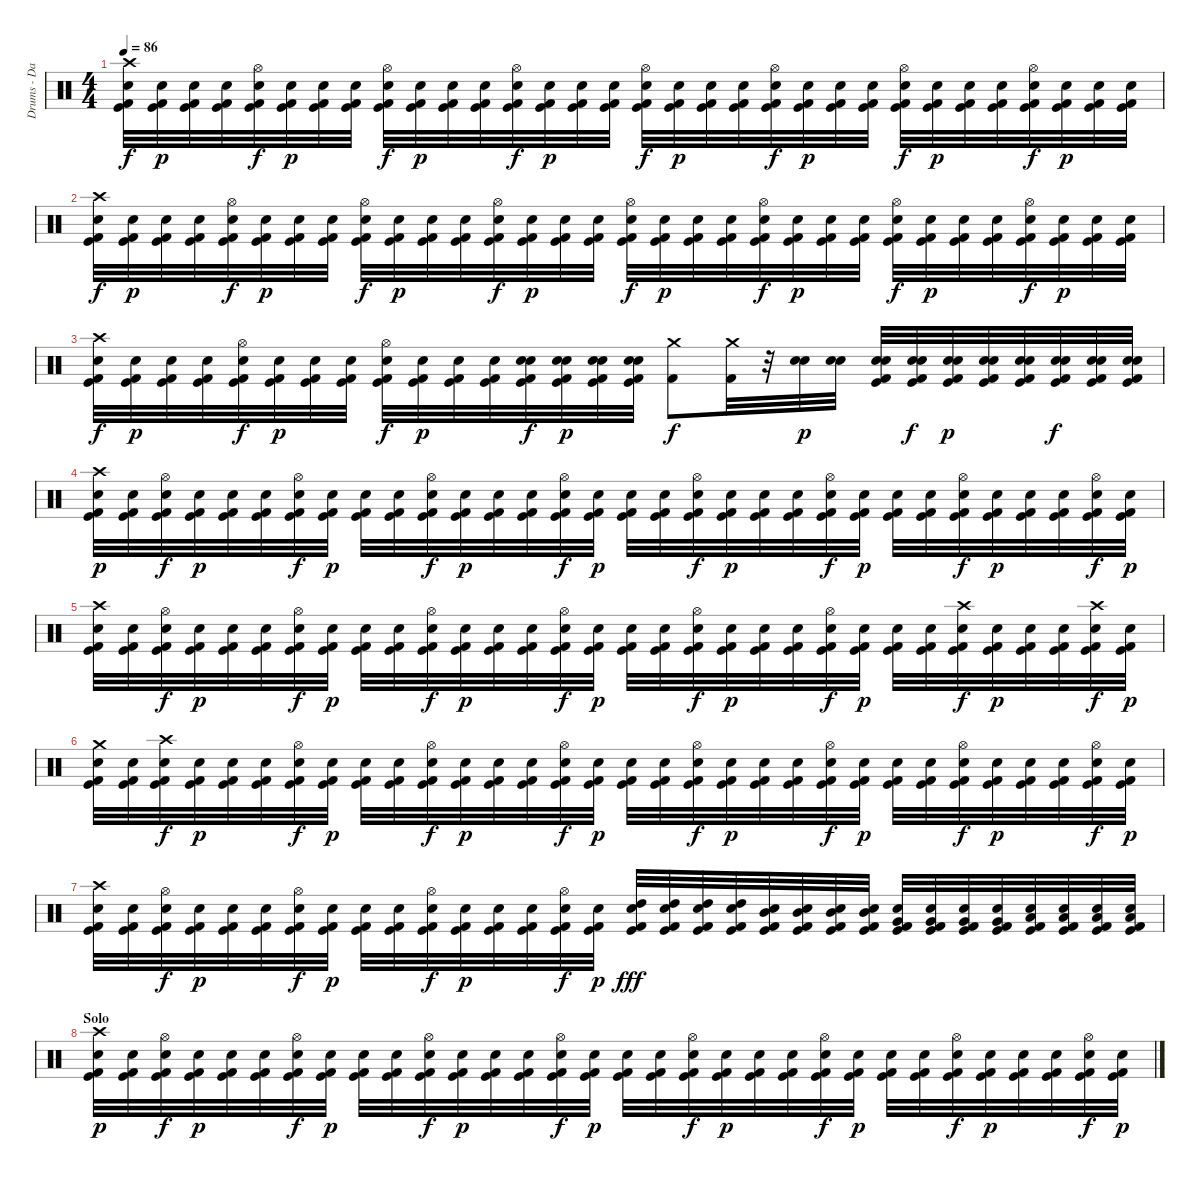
\track ("Drums - Daniel Zimmermann" "Drums - Da") {instrument percussion}
\staff {score}
\articulation defaults
\ts (4 4)
\tempo 86
\clef neutral
\ks c
("Kick (hit)" "Kick (hit) 2" "Electric Snare (hit)" "Crash high (hit)").32{dy f} ("Kick (hit)" "Kick (hit) 2" "Electric Snare (hit)").32{dy p} ("Kick (hit)" "Kick (hit) 2" "Electric Snare (hit)").32 ("Kick (hit)" "Kick (hit) 2" "Electric Snare (hit)").32 ("Kick (hit)" "Kick (hit) 2" "Electric Snare (hit)" "Hi-Hat (open)").32{dy f} ("Kick (hit)" "Kick (hit) 2" "Electric Snare (hit)").32{dy p} ("Kick (hit)" "Kick (hit) 2" "Electric Snare (hit)").32 ("Kick (hit)" "Kick (hit) 2" "Electric Snare (hit)").32 ("Kick (hit)" "Kick (hit) 2" "Electric Snare (hit)" "Hi-Hat (open)").32{dy f} ("Kick (hit)" "Kick (hit) 2" "Electric Snare (hit)").32{dy p} ("Kick (hit)" "Kick (hit) 2" "Electric Snare (hit)").32 ("Kick (hit)" "Kick (hit) 2" "Electric Snare (hit)").32 ("Kick (hit)" "Kick (hit) 2" "Electric Snare (hit)" "Hi-Hat (open)").32{dy f} ("Kick (hit)" "Kick (hit) 2" "Electric Snare (hit)").32{dy p} ("Kick (hit)" "Kick (hit) 2" "Electric Snare (hit)").32 ("Kick (hit)" "Kick (hit) 2" "Electric Snare (hit)").32 ("Kick (hit)" "Kick (hit) 2" "Electric Snare (hit)" "Hi-Hat (open)").32{dy f} ("Kick (hit)" "Kick (hit) 2" "Electric Snare (hit)").32{dy p} ("Kick (hit)" "Kick (hit) 2" "Electric Snare (hit)").32 ("Kick (hit)" "Kick (hit) 2" "Electric Snare (hit)").32 ("Kick (hit)" "Kick (hit) 2" "Electric Snare (hit)" "Hi-Hat (open)").32{dy f} ("Kick (hit)" "Kick (hit) 2" "Electric Snare (hit)").32{dy p} ("Kick (hit)" "Kick (hit) 2" "Electric Snare (hit)").32 ("Kick (hit)" "Kick (hit) 2" "Electric Snare (hit)").32 ("Kick (hit)" "Kick (hit) 2" "Electric Snare (hit)" "Hi-Hat (open)").32{dy f} ("Kick (hit)" "Kick (hit) 2" "Electric Snare (hit)").32{dy p} ("Kick (hit)" "Kick (hit) 2" "Electric Snare (hit)").32 ("Kick (hit)" "Kick (hit) 2" "Electric Snare (hit)").32 ("Kick (hit)" "Kick (hit) 2" "Electric Snare (hit)" "Hi-Hat (open)").32{dy f} ("Kick (hit)" "Kick (hit) 2" "Electric Snare (hit)").32{dy p} ("Kick (hit)" "Kick (hit) 2" "Electric Snare (hit)").32 ("Kick (hit)" "Kick (hit) 2" "Electric Snare (hit)").32 |
("Kick (hit)" "Kick (hit) 2" "Electric Snare (hit)" "Crash high (hit)").32{dy f} ("Kick (hit)" "Kick (hit) 2" "Electric Snare (hit)").32{dy p} ("Kick (hit)" "Kick (hit) 2" "Electric Snare (hit)").32 ("Kick (hit)" "Kick (hit) 2" "Electric Snare (hit)").32 ("Kick (hit)" "Kick (hit) 2" "Electric Snare (hit)" "Hi-Hat (open)").32{dy f} ("Kick (hit)" "Kick (hit) 2" "Electric Snare (hit)").32{dy p} ("Kick (hit)" "Kick (hit) 2" "Electric Snare (hit)").32 ("Kick (hit)" "Kick (hit) 2" "Electric Snare (hit)").32 ("Kick (hit)" "Kick (hit) 2" "Electric Snare (hit)" "Hi-Hat (open)").32{dy f} ("Kick (hit)" "Kick (hit) 2" "Electric Snare (hit)").32{dy p} ("Kick (hit)" "Kick (hit) 2" "Electric Snare (hit)").32 ("Kick (hit)" "Kick (hit) 2" "Electric Snare (hit)").32 ("Kick (hit)" "Kick (hit) 2" "Electric Snare (hit)" "Hi-Hat (open)").32{dy f} ("Kick (hit)" "Kick (hit) 2" "Electric Snare (hit)").32{dy p} ("Kick (hit)" "Kick (hit) 2" "Electric Snare (hit)").32 ("Kick (hit)" "Kick (hit) 2" "Electric Snare (hit)").32 ("Kick (hit)" "Kick (hit) 2" "Electric Snare (hit)" "Hi-Hat (open)").32{dy f} ("Kick (hit)" "Kick (hit) 2" "Electric Snare (hit)").32{dy p} ("Kick (hit)" "Kick (hit) 2" "Electric Snare (hit)").32 ("Kick (hit)" "Kick (hit) 2" "Electric Snare (hit)").32 ("Kick (hit)" "Kick (hit) 2" "Electric Snare (hit)" "Hi-Hat (open)").32{dy f} ("Kick (hit)" "Kick (hit) 2" "Electric Snare (hit)").32{dy p} ("Kick (hit)" "Kick (hit) 2" "Electric Snare (hit)").32 ("Kick (hit)" "Kick (hit) 2" "Electric Snare (hit)").32 ("Kick (hit)" "Kick (hit) 2" "Electric Snare (hit)" "Hi-Hat (open)").32{dy f} ("Kick (hit)" "Kick (hit) 2" "Electric Snare (hit)").32{dy p} ("Kick (hit)" "Kick (hit) 2" "Electric Snare (hit)").32 ("Kick (hit)" "Kick (hit) 2" "Electric Snare (hit)").32 ("Kick (hit)" "Kick (hit) 2" "Electric Snare (hit)" "Hi-Hat (open)").32{dy f} ("Kick (hit)" "Kick (hit) 2" "Electric Snare (hit)").32{dy p} ("Kick (hit)" "Kick (hit) 2" "Electric Snare (hit)").32 ("Kick (hit)" "Kick (hit) 2" "Electric Snare (hit)").32 |
("Kick (hit)" "Kick (hit) 2" "Electric Snare (hit)" "Crash high (hit)").32{dy f} ("Kick (hit)" "Kick (hit) 2" "Electric Snare (hit)").32{dy p} ("Kick (hit)" "Kick (hit) 2" "Electric Snare (hit)").32 ("Kick (hit)" "Kick (hit) 2" "Electric Snare (hit)").32 ("Kick (hit)" "Kick (hit) 2" "Electric Snare (hit)" "Hi-Hat (open)").32{dy f} ("Kick (hit)" "Kick (hit) 2" "Electric Snare (hit)").32{dy p} ("Kick (hit)" "Kick (hit) 2" "Electric Snare (hit)").32 ("Kick (hit)" "Kick (hit) 2" "Electric Snare (hit)").32 ("Kick (hit)" "Kick (hit) 2" "Electric Snare (hit)" "Hi-Hat (open)").32{dy f} ("Kick (hit)" "Kick (hit) 2" "Electric Snare (hit)").32{dy p} ("Kick (hit)" "Kick (hit) 2" "Electric Snare (hit)").32 ("Kick (hit)" "Kick (hit) 2" "Electric Snare (hit)").32 ("Kick (hit)" "Kick (hit) 2" "Electric Snare (hit)" "Snare (hit) 2").32{dy f} ("Kick (hit)" "Kick (hit) 2" "Electric Snare (hit)" "Snare (hit) 2").32{dy p} ("Kick (hit)" "Kick (hit) 2" "Electric Snare (hit)" "Snare (hit) 2").32 ("Kick (hit)" "Kick (hit) 2" "Electric Snare (hit)" "Snare (hit) 2").32 ("Kick (hit) 2" "Crash medium (hit)").8{dy f} ("Kick (hit) 2" "Crash medium (hit)").32 r.32 ("Electric Snare (hit)" "Snare (hit) 2").32{dy p} ("Electric Snare (hit)" "Snare (hit) 2").32 ("Kick (hit)" "Kick (hit) 2" "Electric Snare (hit)" "Snare (hit) 2").32 ("Kick (hit)" "Kick (hit) 2" "Electric Snare (hit)" "Snare (hit) 2").32{dy f} ("Kick (hit)" "Kick (hit) 2" "Electric Snare (hit)" "Snare (hit) 2").32{dy p} ("Kick (hit)" "Kick (hit) 2" "Electric Snare (hit)" "Snare (hit) 2").32 ("Kick (hit)" "Kick (hit) 2" "Electric Snare (hit)" "Snare (hit) 2").32 ("Kick (hit)" "Kick (hit) 2" "Electric Snare (hit)" "Snare (hit) 2").32{dy f} ("Kick (hit)" "Kick (hit) 2" "Electric Snare (hit)" "Snare (hit) 2").32 ("Kick (hit)" "Kick (hit) 2" "Electric Snare (hit)" "Snare (hit) 2").32 |
("Kick (hit)" "Kick (hit) 2" "Electric Snare (hit)" "Crash high (hit)").32{dy p} ("Kick (hit)" "Kick (hit) 2" "Electric Snare (hit)").32 ("Kick (hit)" "Kick (hit) 2" "Electric Snare (hit)" "Hi-Hat (open)").32{dy f} ("Kick (hit)" "Kick (hit) 2" "Electric Snare (hit)").32{dy p} ("Kick (hit)" "Kick (hit) 2" "Electric Snare (hit)").32 ("Kick (hit)" "Kick (hit) 2" "Electric Snare (hit)").32 ("Kick (hit)" "Kick (hit) 2" "Electric Snare (hit)" "Hi-Hat (open)").32{dy f} ("Kick (hit)" "Kick (hit) 2" "Electric Snare (hit)").32{dy p} ("Kick (hit)" "Kick (hit) 2" "Electric Snare (hit)").32 ("Kick (hit)" "Kick (hit) 2" "Electric Snare (hit)").32 ("Kick (hit)" "Kick (hit) 2" "Electric Snare (hit)" "Hi-Hat (open)").32{dy f} ("Kick (hit)" "Kick (hit) 2" "Electric Snare (hit)").32{dy p} ("Kick (hit)" "Kick (hit) 2" "Electric Snare (hit)").32 ("Kick (hit)" "Kick (hit) 2" "Electric Snare (hit)").32 ("Kick (hit)" "Kick (hit) 2" "Electric Snare (hit)" "Hi-Hat (open)").32{dy f} ("Kick (hit)" "Kick (hit) 2" "Electric Snare (hit)").32{dy p} ("Kick (hit)" "Kick (hit) 2" "Electric Snare (hit)").32 ("Kick (hit)" "Kick (hit) 2" "Electric Snare (hit)").32 ("Kick (hit)" "Kick (hit) 2" "Electric Snare (hit)" "Hi-Hat (open)").32{dy f} ("Kick (hit)" "Kick (hit) 2" "Electric Snare (hit)").32{dy p} ("Kick (hit)" "Kick (hit) 2" "Electric Snare (hit)").32 ("Kick (hit)" "Kick (hit) 2" "Electric Snare (hit)").32 ("Kick (hit)" "Kick (hit) 2" "Electric Snare (hit)" "Hi-Hat (open)").32{dy f} ("Kick (hit)" "Kick (hit) 2" "Electric Snare (hit)").32{dy p} ("Kick (hit)" "Kick (hit) 2" "Electric Snare (hit)").32 ("Kick (hit)" "Kick (hit) 2" "Electric Snare (hit)").32 ("Kick (hit)" "Kick (hit) 2" "Electric Snare (hit)" "Hi-Hat (open)").32{dy f} ("Kick (hit)" "Kick (hit) 2" "Electric Snare (hit)").32{dy p} ("Kick (hit)" "Kick (hit) 2" "Electric Snare (hit)").32 ("Kick (hit)" "Kick (hit) 2" "Electric Snare (hit)").32 ("Kick (hit)" "Kick (hit) 2" "Electric Snare (hit)" "Hi-Hat (open)").32{dy f} ("Kick (hit)" "Kick (hit) 2" "Electric Snare (hit)").32{dy p} |
("Kick (hit)" "Kick (hit) 2" "Electric Snare (hit)" "Crash high (hit)").32 ("Kick (hit)" "Kick (hit) 2" "Electric Snare (hit)").32 ("Kick (hit)" "Kick (hit) 2" "Electric Snare (hit)" "Hi-Hat (open)").32{dy f} ("Kick (hit)" "Kick (hit) 2" "Electric Snare (hit)").32{dy p} ("Kick (hit)" "Kick (hit) 2" "Electric Snare (hit)").32 ("Kick (hit)" "Kick (hit) 2" "Electric Snare (hit)").32 ("Kick (hit)" "Kick (hit) 2" "Electric Snare (hit)" "Hi-Hat (open)").32{dy f} ("Kick (hit)" "Kick (hit) 2" "Electric Snare (hit)").32{dy p} ("Kick (hit)" "Kick (hit) 2" "Electric Snare (hit)").32 ("Kick (hit)" "Kick (hit) 2" "Electric Snare (hit)").32 ("Kick (hit)" "Kick (hit) 2" "Electric Snare (hit)" "Hi-Hat (open)").32{dy f} ("Kick (hit)" "Kick (hit) 2" "Electric Snare (hit)").32{dy p} ("Kick (hit)" "Kick (hit) 2" "Electric Snare (hit)").32 ("Kick (hit)" "Kick (hit) 2" "Electric Snare (hit)").32 ("Kick (hit)" "Kick (hit) 2" "Electric Snare (hit)" "Hi-Hat (open)").32{dy f} ("Kick (hit)" "Kick (hit) 2" "Electric Snare (hit)").32{dy p} ("Kick (hit)" "Kick (hit) 2" "Electric Snare (hit)").32 ("Kick (hit)" "Kick (hit) 2" "Electric Snare (hit)").32 ("Kick (hit)" "Kick (hit) 2" "Electric Snare (hit)" "Hi-Hat (open)").32{dy f} ("Kick (hit)" "Kick (hit) 2" "Electric Snare (hit)").32{dy p} ("Kick (hit)" "Kick (hit) 2" "Electric Snare (hit)").32 ("Kick (hit)" "Kick (hit) 2" "Electric Snare (hit)").32 ("Kick (hit)" "Kick (hit) 2" "Electric Snare (hit)" "Hi-Hat (open)").32{dy f} ("Kick (hit)" "Kick (hit) 2" "Electric Snare (hit)").32{dy p} ("Kick (hit)" "Kick (hit) 2" "Electric Snare (hit)").32 ("Kick (hit)" "Kick (hit) 2" "Electric Snare (hit)").32 ("Kick (hit)" "Kick (hit) 2" "Electric Snare (hit)" "Crash high (hit)").32{dy f} ("Kick (hit)" "Kick (hit) 2" "Electric Snare (hit)").32{dy p} ("Kick (hit)" "Kick (hit) 2" "Electric Snare (hit)").32 ("Kick (hit)" "Kick (hit) 2" "Electric Snare (hit)").32 ("Kick (hit)" "Kick (hit) 2" "Electric Snare (hit)" "Crash high (hit)").32{dy f} ("Kick (hit)" "Kick (hit) 2" "Electric Snare (hit)").32{dy p} |
("Kick (hit)" "Kick (hit) 2" "Electric Snare (hit)" "Crash medium (hit)").32 ("Kick (hit)" "Kick (hit) 2" "Electric Snare (hit)").32 ("Kick (hit)" "Kick (hit) 2" "Electric Snare (hit)" "Crash high (hit)").32{dy f} ("Kick (hit)" "Kick (hit) 2" "Electric Snare (hit)").32{dy p} ("Kick (hit)" "Kick (hit) 2" "Electric Snare (hit)").32 ("Kick (hit)" "Kick (hit) 2" "Electric Snare (hit)").32 ("Kick (hit)" "Kick (hit) 2" "Electric Snare (hit)" "Hi-Hat (open)").32{dy f} ("Kick (hit)" "Kick (hit) 2" "Electric Snare (hit)").32{dy p} ("Kick (hit)" "Kick (hit) 2" "Electric Snare (hit)").32 ("Kick (hit)" "Kick (hit) 2" "Electric Snare (hit)").32 ("Kick (hit)" "Kick (hit) 2" "Electric Snare (hit)" "Hi-Hat (open)").32{dy f} ("Kick (hit)" "Kick (hit) 2" "Electric Snare (hit)").32{dy p} ("Kick (hit)" "Kick (hit) 2" "Electric Snare (hit)").32 ("Kick (hit)" "Kick (hit) 2" "Electric Snare (hit)").32 ("Kick (hit)" "Kick (hit) 2" "Electric Snare (hit)" "Hi-Hat (open)").32{dy f} ("Kick (hit)" "Kick (hit) 2" "Electric Snare (hit)").32{dy p} ("Kick (hit)" "Kick (hit) 2" "Electric Snare (hit)").32 ("Kick (hit)" "Kick (hit) 2" "Electric Snare (hit)").32 ("Kick (hit)" "Kick (hit) 2" "Electric Snare (hit)" "Hi-Hat (open)").32{dy f} ("Kick (hit)" "Kick (hit) 2" "Electric Snare (hit)").32{dy p} ("Kick (hit)" "Kick (hit) 2" "Electric Snare (hit)").32 ("Kick (hit)" "Kick (hit) 2" "Electric Snare (hit)").32 ("Kick (hit)" "Kick (hit) 2" "Electric Snare (hit)" "Hi-Hat (open)").32{dy f} ("Kick (hit)" "Kick (hit) 2" "Electric Snare (hit)").32{dy p} ("Kick (hit)" "Kick (hit) 2" "Electric Snare (hit)").32 ("Kick (hit)" "Kick (hit) 2" "Electric Snare (hit)").32 ("Kick (hit)" "Kick (hit) 2" "Electric Snare (hit)" "Hi-Hat (open)").32{dy f} ("Kick (hit)" "Kick (hit) 2" "Electric Snare (hit)").32{dy p} ("Kick (hit)" "Kick (hit) 2" "Electric Snare (hit)").32 ("Kick (hit)" "Kick (hit) 2" "Electric Snare (hit)").32 ("Kick (hit)" "Kick (hit) 2" "Electric Snare (hit)" "Hi-Hat (open)").32{dy f} ("Kick (hit)" "Kick (hit) 2" "Electric Snare (hit)").32{dy p} |
("Kick (hit)" "Kick (hit) 2" "Electric Snare (hit)" "Crash high (hit)").32 ("Kick (hit)" "Kick (hit) 2" "Electric Snare (hit)").32 ("Kick (hit)" "Kick (hit) 2" "Electric Snare (hit)" "Hi-Hat (open)").32{dy f} ("Kick (hit)" "Kick (hit) 2" "Electric Snare (hit)").32{dy p} ("Kick (hit)" "Kick (hit) 2" "Electric Snare (hit)").32 ("Kick (hit)" "Kick (hit) 2" "Electric Snare (hit)").32 ("Kick (hit)" "Kick (hit) 2" "Electric Snare (hit)" "Hi-Hat (open)").32{dy f} ("Kick (hit)" "Kick (hit) 2" "Electric Snare (hit)").32{dy p} ("Kick (hit)" "Kick (hit) 2" "Electric Snare (hit)").32 ("Kick (hit)" "Kick (hit) 2" "Electric Snare (hit)").32 ("Kick (hit)" "Kick (hit) 2" "Electric Snare (hit)" "Hi-Hat (open)").32{dy f} ("Kick (hit)" "Kick (hit) 2" "Electric Snare (hit)").32{dy p} ("Kick (hit)" "Kick (hit) 2" "Electric Snare (hit)").32 ("Kick (hit)" "Kick (hit) 2" "Electric Snare (hit)").32 ("Kick (hit)" "Kick (hit) 2" "Electric Snare (hit)" "Hi-Hat (open)").32{dy f} ("Kick (hit)" "Kick (hit) 2" "Electric Snare (hit)").32{dy p} ("Kick (hit)" "Kick (hit) 2" "Electric Snare (hit)" "High Tom (hit)").32{dy fff} ("Kick (hit)" "Kick (hit) 2" "Electric Snare (hit)" "High Tom (hit)").32 ("Kick (hit)" "Kick (hit) 2" "Electric Snare (hit)" "High Tom (hit)").32 ("Kick (hit)" "Kick (hit) 2" "Electric Snare (hit)" "High Tom (hit)").32 ("Kick (hit)" "Kick (hit) 2" "Electric Snare (hit)" "Mid Tom (hit)").32 ("Kick (hit)" "Kick (hit) 2" "Electric Snare (hit)" "Mid Tom (hit)").32 ("Kick (hit)" "Kick (hit) 2" "Electric Snare (hit)" "Mid Tom (hit)").32 ("Kick (hit)" "Kick (hit) 2" "Electric Snare (hit)" "Mid Tom (hit)").32 ("Kick (hit)" "Kick (hit) 2" "Electric Snare (hit)" "Very Low Tom (hit)").32 ("Kick (hit)" "Kick (hit) 2" "Electric Snare (hit)" "Very Low Tom (hit)").32 ("Kick (hit)" "Kick (hit) 2" "Electric Snare (hit)" "Very Low Tom (hit)").32 ("Kick (hit)" "Kick (hit) 2" "Electric Snare (hit)" "Very Low Tom (hit)").32 ("Kick (hit)" "Kick (hit) 2" "Electric Snare (hit)" "Low Floor Tom (hit)").32 ("Kick (hit)" "Kick (hit) 2" "Electric Snare (hit)" "Low Floor Tom (hit)").32 ("Kick (hit)" "Kick (hit) 2" "Electric Snare (hit)" "Low Floor Tom (hit)").32 ("Kick (hit)" "Kick (hit) 2" "Electric Snare (hit)" "Low Floor Tom (hit)").32 |
\section ("" "Solo")
("Kick (hit)" "Kick (hit) 2" "Electric Snare (hit)" "Crash high (hit)").32{dy p} ("Kick (hit)" "Kick (hit) 2" "Electric Snare (hit)").32 ("Kick (hit)" "Kick (hit) 2" "Electric Snare (hit)" "Hi-Hat (open)").32{dy f} ("Kick (hit)" "Kick (hit) 2" "Electric Snare (hit)").32{dy p} ("Kick (hit)" "Kick (hit) 2" "Electric Snare (hit)").32 ("Kick (hit)" "Kick (hit) 2" "Electric Snare (hit)").32 ("Kick (hit)" "Kick (hit) 2" "Electric Snare (hit)" "Hi-Hat (open)").32{dy f} ("Kick (hit)" "Kick (hit) 2" "Electric Snare (hit)").32{dy p} ("Kick (hit)" "Kick (hit) 2" "Electric Snare (hit)").32 ("Kick (hit)" "Kick (hit) 2" "Electric Snare (hit)").32 ("Kick (hit)" "Kick (hit) 2" "Electric Snare (hit)" "Hi-Hat (open)").32{dy f} ("Kick (hit)" "Kick (hit) 2" "Electric Snare (hit)").32{dy p} ("Kick (hit)" "Kick (hit) 2" "Electric Snare (hit)").32 ("Kick (hit)" "Kick (hit) 2" "Electric Snare (hit)").32 ("Kick (hit)" "Kick (hit) 2" "Electric Snare (hit)" "Hi-Hat (open)").32{dy f} ("Kick (hit)" "Kick (hit) 2" "Electric Snare (hit)").32{dy p} ("Kick (hit)" "Kick (hit) 2" "Electric Snare (hit)").32 ("Kick (hit)" "Kick (hit) 2" "Electric Snare (hit)").32 ("Kick (hit)" "Kick (hit) 2" "Electric Snare (hit)" "Hi-Hat (open)").32{dy f} ("Kick (hit)" "Kick (hit) 2" "Electric Snare (hit)").32{dy p} ("Kick (hit)" "Kick (hit) 2" "Electric Snare (hit)").32 ("Kick (hit)" "Kick (hit) 2" "Electric Snare (hit)").32 ("Kick (hit)" "Kick (hit) 2" "Electric Snare (hit)" "Hi-Hat (open)").32{dy f} ("Kick (hit)" "Kick (hit) 2" "Electric Snare (hit)").32{dy p} ("Kick (hit)" "Kick (hit) 2" "Electric Snare (hit)").32 ("Kick (hit)" "Kick (hit) 2" "Electric Snare (hit)").32 ("Kick (hit)" "Kick (hit) 2" "Electric Snare (hit)" "Hi-Hat (open)").32{dy f} ("Kick (hit)" "Kick (hit) 2" "Electric Snare (hit)").32{dy p} ("Kick (hit)" "Kick (hit) 2" "Electric Snare (hit)").32 ("Kick (hit)" "Kick (hit) 2" "Electric Snare (hit)").32 ("Kick (hit)" "Kick (hit) 2" "Electric Snare (hit)" "Hi-Hat (open)").32{dy f} ("Kick (hit)" "Kick (hit) 2" "Electric Snare (hit)").32{dy p}
